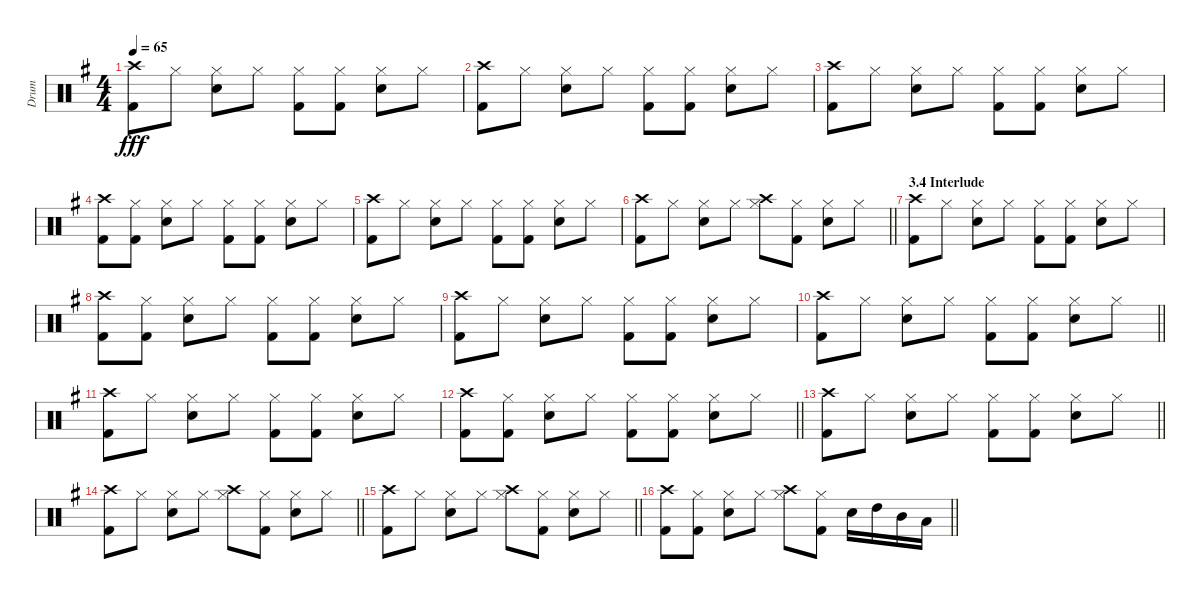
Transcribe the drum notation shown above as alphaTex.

\track ("Drum" "Drum") {instrument percussion}
\staff {score}
\articulation defaults
\ts (4 4)
\tempo 65
\clef neutral
\ks eminor
("Crash high (hit)" "Kick (hit) 2").8{dy fff} "Hi-Hat (closed)".8 ("Electric Snare (hit)" "Hi-Hat (closed)").8 "Hi-Hat (closed)".8 ("Kick (hit) 2" "Hi-Hat (closed)").8 ("Kick (hit) 2" "Hi-Hat (closed)").8 ("Electric Snare (hit)" "Hi-Hat (closed)").8 "Hi-Hat (closed)".8 |
("Crash high (hit)" "Kick (hit) 2").8 "Hi-Hat (closed)".8 ("Electric Snare (hit)" "Hi-Hat (closed)").8 "Hi-Hat (closed)".8 ("Kick (hit) 2" "Hi-Hat (closed)").8 ("Kick (hit) 2" "Hi-Hat (closed)").8 ("Electric Snare (hit)" "Hi-Hat (closed)").8 "Hi-Hat (closed)".8 |
("Crash high (hit)" "Kick (hit) 2").8 "Hi-Hat (closed)".8 ("Electric Snare (hit)" "Hi-Hat (closed)").8 "Hi-Hat (closed)".8 ("Kick (hit) 2" "Hi-Hat (closed)").8 ("Kick (hit) 2" "Hi-Hat (closed)").8 ("Electric Snare (hit)" "Hi-Hat (closed)").8 "Hi-Hat (closed)".8 |
("Crash high (hit)" "Kick (hit) 2").8 ("Kick (hit) 2" "Hi-Hat (closed)").8 ("Electric Snare (hit)" "Hi-Hat (closed)").8 "Hi-Hat (closed)".8 ("Kick (hit) 2" "Hi-Hat (closed)").8 ("Kick (hit) 2" "Hi-Hat (closed)").8 ("Electric Snare (hit)" "Hi-Hat (closed)").8 "Hi-Hat (closed)".8 |
("Crash high (hit)" "Kick (hit) 2").8 "Hi-Hat (closed)".8 ("Electric Snare (hit)" "Hi-Hat (closed)").8 "Hi-Hat (closed)".8 ("Kick (hit) 2" "Hi-Hat (closed)").8 ("Kick (hit) 2" "Hi-Hat (closed)").8 ("Electric Snare (hit)" "Hi-Hat (closed)").8 "Hi-Hat (closed)".8 |
\barLineRight lightlight
("Crash high (hit)" "Kick (hit) 2").8 "Hi-Hat (closed)".8 ("Electric Snare (hit)" "Hi-Hat (closed)").8 "Hi-Hat (closed)".8 ("Crash high (hit)" "Hi-Hat (closed)").8 ("Kick (hit) 2" "Hi-Hat (closed)").8 ("Electric Snare (hit)" "Hi-Hat (closed)").8 "Hi-Hat (closed)".8 |
\section ("" "3.4 Interlude")
("Crash high (hit)" "Kick (hit) 2").8 "Hi-Hat (closed)".8 ("Electric Snare (hit)" "Hi-Hat (closed)").8 "Hi-Hat (closed)".8 ("Kick (hit) 2" "Hi-Hat (closed)").8 ("Kick (hit) 2" "Hi-Hat (closed)").8 ("Electric Snare (hit)" "Hi-Hat (closed)").8 "Hi-Hat (closed)".8 |
("Crash high (hit)" "Kick (hit) 2").8 ("Kick (hit) 2" "Hi-Hat (closed)").8 ("Electric Snare (hit)" "Hi-Hat (closed)").8 "Hi-Hat (closed)".8 ("Kick (hit) 2" "Hi-Hat (closed)").8 ("Kick (hit) 2" "Hi-Hat (closed)").8 ("Electric Snare (hit)" "Hi-Hat (closed)").8 "Hi-Hat (closed)".8 |
("Crash high (hit)" "Kick (hit) 2").8 "Hi-Hat (closed)".8 ("Electric Snare (hit)" "Hi-Hat (closed)").8 "Hi-Hat (closed)".8 ("Kick (hit) 2" "Hi-Hat (closed)").8 ("Kick (hit) 2" "Hi-Hat (closed)").8 ("Electric Snare (hit)" "Hi-Hat (closed)").8 "Hi-Hat (closed)".8 |
\barLineRight lightlight
("Crash high (hit)" "Kick (hit) 2").8 "Hi-Hat (closed)".8 ("Electric Snare (hit)" "Hi-Hat (closed)").8 "Hi-Hat (closed)".8 ("Kick (hit) 2" "Hi-Hat (closed)").8 ("Kick (hit) 2" "Hi-Hat (closed)").8 ("Electric Snare (hit)" "Hi-Hat (closed)").8 "Hi-Hat (closed)".8 |
("Crash high (hit)" "Kick (hit) 2").8 "Hi-Hat (closed)".8 ("Electric Snare (hit)" "Hi-Hat (closed)").8 "Hi-Hat (closed)".8 ("Kick (hit) 2" "Hi-Hat (closed)").8 ("Kick (hit) 2" "Hi-Hat (closed)").8 ("Electric Snare (hit)" "Hi-Hat (closed)").8 "Hi-Hat (closed)".8 |
\barLineRight lightlight
("Crash high (hit)" "Kick (hit) 2").8 ("Kick (hit) 2" "Hi-Hat (closed)").8 ("Electric Snare (hit)" "Hi-Hat (closed)").8 "Hi-Hat (closed)".8 ("Kick (hit) 2" "Hi-Hat (closed)").8 ("Kick (hit) 2" "Hi-Hat (closed)").8 ("Electric Snare (hit)" "Hi-Hat (closed)").8 "Hi-Hat (closed)".8 |
\barLineRight lightlight
("Crash high (hit)" "Kick (hit) 2").8 "Hi-Hat (closed)".8 ("Electric Snare (hit)" "Hi-Hat (closed)").8 "Hi-Hat (closed)".8 ("Kick (hit) 2" "Hi-Hat (closed)").8 ("Kick (hit) 2" "Hi-Hat (closed)").8 ("Electric Snare (hit)" "Hi-Hat (closed)").8 "Hi-Hat (closed)".8 |
\barLineRight lightlight
("Crash high (hit)" "Kick (hit) 2").8 "Hi-Hat (closed)".8 ("Electric Snare (hit)" "Hi-Hat (closed)").8 "Hi-Hat (closed)".8 ("Crash high (hit)" "Hi-Hat (closed)").8 ("Kick (hit) 2" "Hi-Hat (closed)").8 ("Electric Snare (hit)" "Hi-Hat (closed)").8 "Hi-Hat (closed)".8 |
\barLineRight lightlight
("Crash high (hit)" "Kick (hit) 2").8 "Hi-Hat (closed)".8 ("Electric Snare (hit)" "Hi-Hat (closed)").8 "Hi-Hat (closed)".8 ("Crash high (hit)" "Hi-Hat (closed)").8 ("Kick (hit) 2" "Hi-Hat (closed)").8 ("Electric Snare (hit)" "Hi-Hat (closed)").8 "Hi-Hat (closed)".8 |
\barLineRight lightlight
("Crash high (hit)" "Kick (hit) 2").8 ("Kick (hit) 2" "Hi-Hat (closed)").8 ("Electric Snare (hit)" "Hi-Hat (closed)").8 "Hi-Hat (closed)".8 ("Crash high (hit)" "Hi-Hat (closed)").8 ("Kick (hit) 2" "Hi-Hat (closed)").8 "Electric Snare (hit)".16 "High Tom (hit)".16 "Mid Tom (hit)".16 "Low Tom (hit)".16
